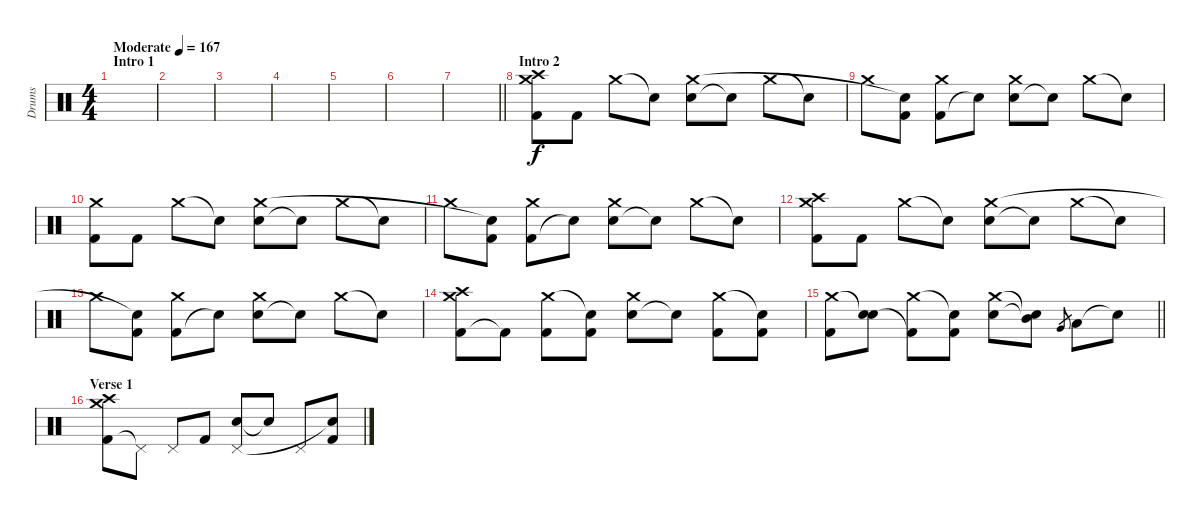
\track ("Drums" "Drums") {instrument percussion}
\staff {score}
\articulation defaults
\ts (4 4)
\section ("" "Intro 1")
\tempo (167 "Moderate")
\clef neutral
\ks c
|
|
|
|
|
|
\barLineRight lightlight
|
\section ("" "Intro 2")
("Kick (hit) 2" "Crash medium (hit)" "Crash high (hit)").8 "Kick (hit) 2".8 "Crash medium (hit)".8 "Snare (hit)"{t}.8 ("Electric Snare (hit)" "Crash medium (hit)").8 "Snare (hit)"{t}.8 "Crash medium (hit)".8 "Snare (hit)"{t}.8 |
"Crash medium (hit)".8 ("Kick (hit) 2" "Snare (hit)"{t}).8 ("Kick (hit) 2" "Crash medium (hit)").8 "Snare (hit)"{t}.8 ("Electric Snare (hit)" "Crash medium (hit)").8 "Snare (hit)"{t}.8 "Crash medium (hit)".8 "Snare (hit)"{t}.8 |
("Kick (hit) 2" "Crash medium (hit)").8 "Kick (hit) 2".8 "Crash medium (hit)".8 "Snare (hit)"{t}.8 ("Electric Snare (hit)" "Crash medium (hit)").8 "Snare (hit)"{t}.8 "Crash medium (hit)".8 "Snare (hit)"{t}.8 |
"Crash medium (hit)".8 ("Kick (hit) 2" "Snare (hit)"{t}).8 ("Kick (hit) 2" "Crash medium (hit)").8 "Snare (hit)"{t}.8 ("Electric Snare (hit)" "Crash medium (hit)").8 "Snare (hit)"{t}.8 "Crash medium (hit)".8 "Snare (hit)"{t}.8 |
("Kick (hit) 2" "Crash medium (hit)" "Crash high (hit)").8 "Kick (hit) 2".8 "Crash medium (hit)".8 "Snare (hit)"{t}.8 ("Electric Snare (hit)" "Crash medium (hit)").8 "Snare (hit)"{t}.8 "Crash medium (hit)".8 "Snare (hit)"{t}.8 |
"Crash medium (hit)".8 ("Kick (hit) 2" "Snare (hit)"{t}).8 ("Kick (hit) 2" "Crash medium (hit)").8 "Snare (hit)"{t}.8 ("Electric Snare (hit)" "Crash medium (hit)").8 "Snare (hit)"{t}.8 "Crash medium (hit)".8 "Snare (hit)"{t}.8 |
("Kick (hit) 2" "Crash medium (hit)" "Crash high (hit)").8 "Kick (hit) 2"{t}.8 ("Kick (hit) 2" "Crash medium (hit)").8 ("Kick (hit) 2" "Snare (hit)"{t}).8 ("Electric Snare (hit)" "Crash medium (hit)").8 "Snare (hit)"{t}.8 ("Kick (hit) 2" "Crash medium (hit)").8 ("Kick (hit) 2" "Snare (hit)"{t}).8 |
\barLineRight lightlight
("Kick (hit) 2" "Crash medium (hit)").8 ("Electric Snare (hit)" "Snare (hit)"{t}).8 ("Kick (hit) 2"{t} "Crash medium (hit)").8 ("Kick (hit) 2" "Snare (hit)"{t}).8 ("Electric Snare (hit)" "Crash medium (hit)").8 ("Mid Tom (hit)"{t} "Snare (hit)"{t}).8 "Very Low Tom (hit)".8{gr} "Low Tom (hit)".8 "Snare (hit)"{t}.8 |
\section ("" "Verse 1")
("Kick (hit) 2" "Crash medium (hit)" "Crash high (hit)").8 "Pedal Hi-Hat (hit)"{t}.8 "Pedal Hi-Hat (hit)".8 "Kick (hit) 2".8 ("Electric Snare (hit)" "Pedal Hi-Hat (hit)").8 "Snare (hit)"{t}.8 "Pedal Hi-Hat (hit)".8 ("Kick (hit) 2" "Snare (hit)"{t}).8
